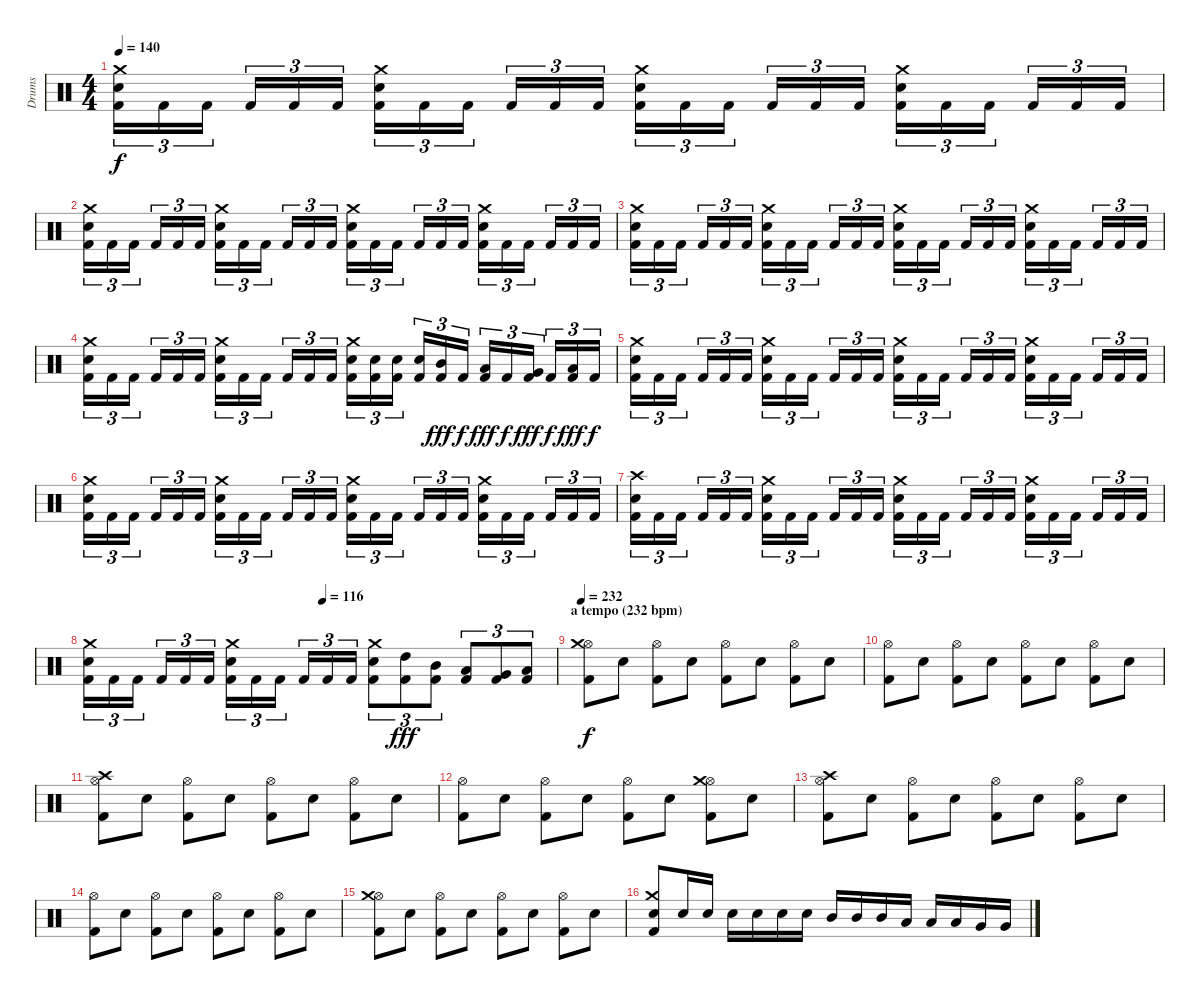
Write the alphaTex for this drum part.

\track ("Drums" "Drums") {instrument percussion}
\staff {score}
\articulation defaults
\ts (4 4)
\tempo 140
\clef neutral
\ks c
("Kick (hit) 2" "Electric Snare (hit)" "Crash medium (hit)").16{tu (3 2) dy f} "Kick (hit) 2".16{tu (3 2)} "Kick (hit) 2".16{tu (3 2)} "Kick (hit) 2".16{tu (3 2)} "Kick (hit) 2".16{tu (3 2)} "Kick (hit) 2".16{tu (3 2)} ("Kick (hit) 2" "Electric Snare (hit)" "Crash medium (hit)").16{tu (3 2)} "Kick (hit) 2".16{tu (3 2)} "Kick (hit) 2".16{tu (3 2)} "Kick (hit) 2".16{tu (3 2)} "Kick (hit) 2".16{tu (3 2)} "Kick (hit) 2".16{tu (3 2)} ("Kick (hit) 2" "Electric Snare (hit)" "Crash medium (hit)").16{tu (3 2)} "Kick (hit) 2".16{tu (3 2)} "Kick (hit) 2".16{tu (3 2)} "Kick (hit) 2".16{tu (3 2)} "Kick (hit) 2".16{tu (3 2)} "Kick (hit) 2".16{tu (3 2)} ("Kick (hit) 2" "Electric Snare (hit)" "Crash medium (hit)").16{tu (3 2)} "Kick (hit) 2".16{tu (3 2)} "Kick (hit) 2".16{tu (3 2)} "Kick (hit) 2".16{tu (3 2)} "Kick (hit) 2".16{tu (3 2)} "Kick (hit) 2".16{tu (3 2)} |
("Kick (hit) 2" "Electric Snare (hit)" "Crash medium (hit)").16{tu (3 2)} "Kick (hit) 2".16{tu (3 2)} "Kick (hit) 2".16{tu (3 2)} "Kick (hit) 2".16{tu (3 2)} "Kick (hit) 2".16{tu (3 2)} "Kick (hit) 2".16{tu (3 2)} ("Kick (hit) 2" "Electric Snare (hit)" "Crash medium (hit)").16{tu (3 2)} "Kick (hit) 2".16{tu (3 2)} "Kick (hit) 2".16{tu (3 2)} "Kick (hit) 2".16{tu (3 2)} "Kick (hit) 2".16{tu (3 2)} "Kick (hit) 2".16{tu (3 2)} ("Kick (hit) 2" "Electric Snare (hit)" "Crash medium (hit)").16{tu (3 2)} "Kick (hit) 2".16{tu (3 2)} "Kick (hit) 2".16{tu (3 2)} "Kick (hit) 2".16{tu (3 2)} "Kick (hit) 2".16{tu (3 2)} "Kick (hit) 2".16{tu (3 2)} ("Kick (hit) 2" "Electric Snare (hit)" "Crash medium (hit)").16{tu (3 2)} "Kick (hit) 2".16{tu (3 2)} "Kick (hit) 2".16{tu (3 2)} "Kick (hit) 2".16{tu (3 2)} "Kick (hit) 2".16{tu (3 2)} "Kick (hit) 2".16{tu (3 2)} |
("Kick (hit) 2" "Electric Snare (hit)" "Crash medium (hit)").16{tu (3 2)} "Kick (hit) 2".16{tu (3 2)} "Kick (hit) 2".16{tu (3 2)} "Kick (hit) 2".16{tu (3 2)} "Kick (hit) 2".16{tu (3 2)} "Kick (hit) 2".16{tu (3 2)} ("Kick (hit) 2" "Electric Snare (hit)" "Crash medium (hit)").16{tu (3 2)} "Kick (hit) 2".16{tu (3 2)} "Kick (hit) 2".16{tu (3 2)} "Kick (hit) 2".16{tu (3 2)} "Kick (hit) 2".16{tu (3 2)} "Kick (hit) 2".16{tu (3 2)} ("Kick (hit) 2" "Electric Snare (hit)" "Crash medium (hit)").16{tu (3 2)} "Kick (hit) 2".16{tu (3 2)} "Kick (hit) 2".16{tu (3 2)} "Kick (hit) 2".16{tu (3 2)} "Kick (hit) 2".16{tu (3 2)} "Kick (hit) 2".16{tu (3 2)} ("Kick (hit) 2" "Electric Snare (hit)" "Crash medium (hit)").16{tu (3 2)} "Kick (hit) 2".16{tu (3 2)} "Kick (hit) 2".16{tu (3 2)} "Kick (hit) 2".16{tu (3 2)} "Kick (hit) 2".16{tu (3 2)} "Kick (hit) 2".16{tu (3 2)} |
("Kick (hit) 2" "Electric Snare (hit)" "Crash medium (hit)").16{tu (3 2)} "Kick (hit) 2".16{tu (3 2)} "Kick (hit) 2".16{tu (3 2)} "Kick (hit) 2".16{tu (3 2)} "Kick (hit) 2".16{tu (3 2)} "Kick (hit) 2".16{tu (3 2)} ("Kick (hit) 2" "Electric Snare (hit)" "Crash medium (hit)").16{tu (3 2)} "Kick (hit) 2".16{tu (3 2)} "Kick (hit) 2".16{tu (3 2)} "Kick (hit) 2".16{tu (3 2)} "Kick (hit) 2".16{tu (3 2)} "Kick (hit) 2".16{tu (3 2)} ("Kick (hit) 2" "Electric Snare (hit)" "Crash medium (hit)").16{tu (3 2)} ("Kick (hit) 2" "Electric Snare (hit)").16{tu (3 2)} ("Kick (hit) 2" "Electric Snare (hit)").16{tu (3 2)} ("Kick (hit) 2" "Electric Snare (hit)").16{tu (3 2)} ("Kick (hit) 2" "Mid Tom (hit)").16{tu (3 2) dy fff} "Kick (hit) 2".16{tu (3 2) dy f} ("Kick (hit) 2" "Low Tom (hit)").16{tu (3 2) dy fff} "Kick (hit) 2".16{tu (3 2) dy f} ("Kick (hit) 2" "Very Low Tom (hit)").16{tu (3 2) dy fff} "Kick (hit) 2".16{tu (3 2) dy f} ("Kick (hit) 2" "Low Floor Tom (hit)").16{tu (3 2) dy fff} "Kick (hit) 2".16{tu (3 2) dy f} |
("Kick (hit) 2" "Electric Snare (hit)" "Crash medium (hit)").16{tu (3 2)} "Kick (hit) 2".16{tu (3 2)} "Kick (hit) 2".16{tu (3 2)} "Kick (hit) 2".16{tu (3 2)} "Kick (hit) 2".16{tu (3 2)} "Kick (hit) 2".16{tu (3 2)} ("Kick (hit) 2" "Electric Snare (hit)" "Crash medium (hit)").16{tu (3 2)} "Kick (hit) 2".16{tu (3 2)} "Kick (hit) 2".16{tu (3 2)} "Kick (hit) 2".16{tu (3 2)} "Kick (hit) 2".16{tu (3 2)} "Kick (hit) 2".16{tu (3 2)} ("Kick (hit) 2" "Electric Snare (hit)" "Crash medium (hit)").16{tu (3 2)} "Kick (hit) 2".16{tu (3 2)} "Kick (hit) 2".16{tu (3 2)} "Kick (hit) 2".16{tu (3 2)} "Kick (hit) 2".16{tu (3 2)} "Kick (hit) 2".16{tu (3 2)} ("Kick (hit) 2" "Electric Snare (hit)" "Crash medium (hit)").16{tu (3 2)} "Kick (hit) 2".16{tu (3 2)} "Kick (hit) 2".16{tu (3 2)} "Kick (hit) 2".16{tu (3 2)} "Kick (hit) 2".16{tu (3 2)} "Kick (hit) 2".16{tu (3 2)} |
("Kick (hit) 2" "Electric Snare (hit)" "Crash medium (hit)").16{tu (3 2)} "Kick (hit) 2".16{tu (3 2)} "Kick (hit) 2".16{tu (3 2)} "Kick (hit) 2".16{tu (3 2)} "Kick (hit) 2".16{tu (3 2)} "Kick (hit) 2".16{tu (3 2)} ("Kick (hit) 2" "Electric Snare (hit)" "Crash medium (hit)").16{tu (3 2)} "Kick (hit) 2".16{tu (3 2)} "Kick (hit) 2".16{tu (3 2)} "Kick (hit) 2".16{tu (3 2)} "Kick (hit) 2".16{tu (3 2)} "Kick (hit) 2".16{tu (3 2)} ("Kick (hit) 2" "Electric Snare (hit)" "Crash medium (hit)").16{tu (3 2)} "Kick (hit) 2".16{tu (3 2)} "Kick (hit) 2".16{tu (3 2)} "Kick (hit) 2".16{tu (3 2)} "Kick (hit) 2".16{tu (3 2)} "Kick (hit) 2".16{tu (3 2)} ("Kick (hit) 2" "Electric Snare (hit)" "Crash medium (hit)").16{tu (3 2)} "Kick (hit) 2".16{tu (3 2)} "Kick (hit) 2".16{tu (3 2)} "Kick (hit) 2".16{tu (3 2)} "Kick (hit) 2".16{tu (3 2)} "Kick (hit) 2".16{tu (3 2)} |
("Kick (hit) 2" "Electric Snare (hit)" "Crash high (hit)").16{tu (3 2)} "Kick (hit) 2".16{tu (3 2)} "Kick (hit) 2".16{tu (3 2)} "Kick (hit) 2".16{tu (3 2)} "Kick (hit) 2".16{tu (3 2)} "Kick (hit) 2".16{tu (3 2)} ("Kick (hit) 2" "Electric Snare (hit)" "Crash medium (hit)").16{tu (3 2)} "Kick (hit) 2".16{tu (3 2)} "Kick (hit) 2".16{tu (3 2)} "Kick (hit) 2".16{tu (3 2)} "Kick (hit) 2".16{tu (3 2)} "Kick (hit) 2".16{tu (3 2)} ("Kick (hit) 2" "Electric Snare (hit)" "Crash medium (hit)").16{tu (3 2)} "Kick (hit) 2".16{tu (3 2)} "Kick (hit) 2".16{tu (3 2)} "Kick (hit) 2".16{tu (3 2)} "Kick (hit) 2".16{tu (3 2)} "Kick (hit) 2".16{tu (3 2)} ("Kick (hit) 2" "Electric Snare (hit)" "Crash medium (hit)").16{tu (3 2)} "Kick (hit) 2".16{tu (3 2)} "Kick (hit) 2".16{tu (3 2)} "Kick (hit) 2".16{tu (3 2)} "Kick (hit) 2".16{tu (3 2)} "Kick (hit) 2".16{tu (3 2)} |
\tempo (116 0.5)
("Kick (hit) 2" "Electric Snare (hit)" "Crash medium (hit)").16{tu (3 2)} "Kick (hit) 2".16{tu (3 2)} "Kick (hit) 2".16{tu (3 2)} "Kick (hit) 2".16{tu (3 2)} "Kick (hit) 2".16{tu (3 2)} "Kick (hit) 2".16{tu (3 2)} ("Kick (hit) 2" "Electric Snare (hit)" "Crash medium (hit)").16{tu (3 2)} "Kick (hit) 2".16{tu (3 2)} "Kick (hit) 2".16{tu (3 2)} "Kick (hit) 2".16{tu (3 2)} "Kick (hit) 2".16{tu (3 2)} "Kick (hit) 2".16{tu (3 2)} ("Kick (hit) 2" "Electric Snare (hit)" "Crash medium (hit)").8{tu (3 2)} ("Kick (hit) 2" "High Tom (hit)").8{tu (3 2) dy fff} ("Kick (hit) 2" "Mid Tom (hit)").8{tu (3 2)} ("Kick (hit) 2" "Low Tom (hit)").8{tu (3 2)} ("Kick (hit) 2" "Very Low Tom (hit)").8{tu (3 2)} ("Kick (hit) 2" "Low Floor Tom (hit)").8{tu (3 2)} |
\section ("" "a tempo (232 bpm)")
\tempo 232
("Kick (hit) 2" "Hi-Hat (open)" "Crash medium (hit)").8{dy f} "Snare (hit) 2".8 ("Kick (hit) 2" "Hi-Hat (open)").8 "Snare (hit) 2".8 ("Kick (hit) 2" "Hi-Hat (open)").8 "Snare (hit) 2".8 ("Kick (hit) 2" "Hi-Hat (open)").8 "Snare (hit) 2".8 |
("Kick (hit) 2" "Hi-Hat (open)").8 "Snare (hit) 2".8 ("Kick (hit) 2" "Hi-Hat (open)").8 "Snare (hit) 2".8 ("Kick (hit) 2" "Hi-Hat (open)").8 "Snare (hit) 2".8 ("Kick (hit) 2" "Hi-Hat (open)").8 "Snare (hit) 2".8 |
("Kick (hit) 2" "Hi-Hat (open)" "Crash high (hit)").8 "Snare (hit) 2".8 ("Kick (hit) 2" "Hi-Hat (open)").8 "Snare (hit) 2".8 ("Kick (hit) 2" "Hi-Hat (open)").8 "Snare (hit) 2".8 ("Kick (hit) 2" "Hi-Hat (open)").8 "Snare (hit) 2".8 |
("Kick (hit) 2" "Hi-Hat (open)").8 "Snare (hit) 2".8 ("Kick (hit) 2" "Hi-Hat (open)").8 "Snare (hit) 2".8 ("Kick (hit) 2" "Hi-Hat (open)").8 "Snare (hit) 2".8 ("Kick (hit) 2" "Hi-Hat (open)" "Crash medium (hit)").8 "Snare (hit) 2".8 |
("Kick (hit) 2" "Hi-Hat (open)" "Crash high (hit)").8 "Snare (hit) 2".8 ("Kick (hit) 2" "Hi-Hat (open)").8 "Snare (hit) 2".8 ("Kick (hit) 2" "Hi-Hat (open)").8 "Snare (hit) 2".8 ("Kick (hit) 2" "Hi-Hat (open)").8 "Snare (hit) 2".8 |
("Kick (hit) 2" "Hi-Hat (open)").8 "Snare (hit) 2".8 ("Kick (hit) 2" "Hi-Hat (open)").8 "Snare (hit) 2".8 ("Kick (hit) 2" "Hi-Hat (open)").8 "Snare (hit) 2".8 ("Kick (hit) 2" "Hi-Hat (open)").8 "Snare (hit) 2".8 |
("Kick (hit) 2" "Hi-Hat (open)" "Crash medium (hit)").8 "Snare (hit) 2".8 ("Kick (hit) 2" "Hi-Hat (open)").8 "Snare (hit) 2".8 ("Kick (hit) 2" "Hi-Hat (open)").8 "Snare (hit) 2".8 ("Kick (hit) 2" "Hi-Hat (open)").8 "Snare (hit) 2".8 |
("Kick (hit) 2" "Snare (hit) 2" "Crash medium (hit)").8 "Snare (hit) 2".16 "Snare (hit) 2".16 "Snare (hit) 2".16 "Snare (hit) 2".16 "Snare (hit) 2".16 "Snare (hit) 2".16 "Mid Tom (hit)".16 "Mid Tom (hit)".16 "Mid Tom (hit)".16 "Low Tom (hit)".16 "Low Tom (hit)".16 "Low Tom (hit)".16 "Very Low Tom (hit)".16 "Very Low Tom (hit)".16
